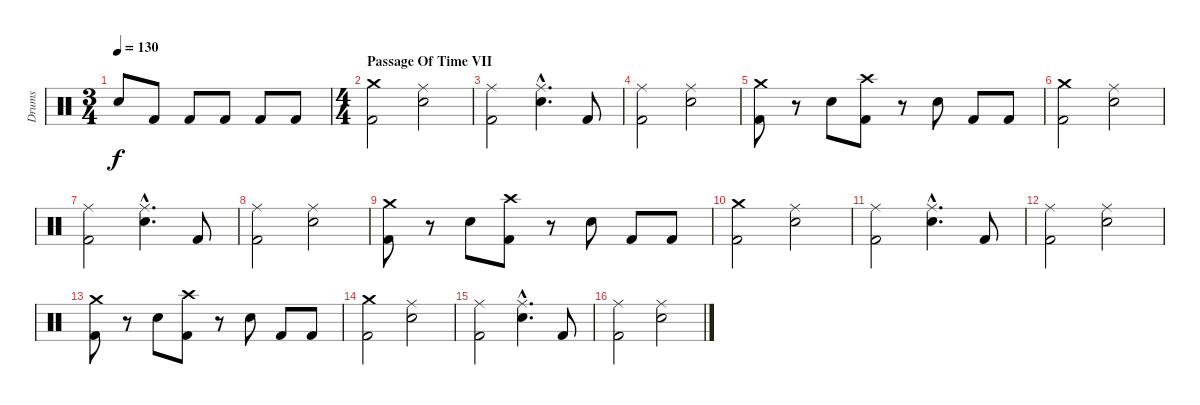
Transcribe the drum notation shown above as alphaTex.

\track ("Drums" "Drums") {instrument percussion}
\staff {score}
\articulation defaults
\ts (3 4)
\tempo 130
\clef neutral
\ks c "Electric Snare (hit)".8{dy f} "Kick (hit) 2".8 "Kick (hit) 2".8 "Kick (hit) 2".8 "Kick (hit) 2".8 "Kick (hit) 2".8
|
\ts (4 4)
\section ("" "Passage Of Time VII")
("Crash medium (hit)" "Kick (hit) 2").2 ("Ride (middle)" "Electric Snare (hit)").2 |
("Ride (middle)" "Kick (hit) 2").2 ("Ride (middle)"{hac} "Electric Snare (hit)"{hac}).4{d} "Kick (hit) 2".8 |
("Ride (middle)" "Kick (hit) 2").2 ("Ride (middle)" "Electric Snare (hit)").2 |
("Crash medium (hit)" "Kick (hit) 2").8 r.8 "Electric Snare (hit)".8 ("Crash high (hit)" "Kick (hit) 2").8 r.8 "Electric Snare (hit)".8 "Kick (hit) 2".8 "Kick (hit) 2".8 |
("Crash medium (hit)" "Kick (hit) 2").2 ("Ride (middle)" "Electric Snare (hit)").2 |
("Ride (middle)" "Kick (hit) 2").2 ("Ride (middle)"{hac} "Electric Snare (hit)"{hac}).4{d} "Kick (hit) 2".8 |
("Ride (middle)" "Kick (hit) 2").2 ("Ride (middle)" "Electric Snare (hit)").2 |
("Crash medium (hit)" "Kick (hit) 2").8 r.8 "Electric Snare (hit)".8 ("Crash high (hit)" "Kick (hit) 2").8 r.8 "Electric Snare (hit)".8 "Kick (hit) 2".8 "Kick (hit) 2".8 |
("Crash medium (hit)" "Kick (hit) 2").2 ("Ride (middle)" "Electric Snare (hit)").2 |
("Ride (middle)" "Kick (hit) 2").2 ("Ride (middle)"{hac} "Electric Snare (hit)"{hac}).4{d} "Kick (hit) 2".8 |
("Ride (middle)" "Kick (hit) 2").2 ("Ride (middle)" "Electric Snare (hit)").2 |
("Crash medium (hit)" "Kick (hit) 2").8 r.8 "Electric Snare (hit)".8 ("Crash high (hit)" "Kick (hit) 2").8 r.8 "Electric Snare (hit)".8 "Kick (hit) 2".8 "Kick (hit) 2".8 |
("Crash medium (hit)" "Kick (hit) 2").2 ("Ride (middle)" "Electric Snare (hit)").2 |
("Ride (middle)" "Kick (hit) 2").2 ("Ride (middle)"{hac} "Electric Snare (hit)"{hac}).4{d} "Kick (hit) 2".8 |
("Ride (middle)" "Kick (hit) 2").2 ("Ride (middle)" "Electric Snare (hit)").2
